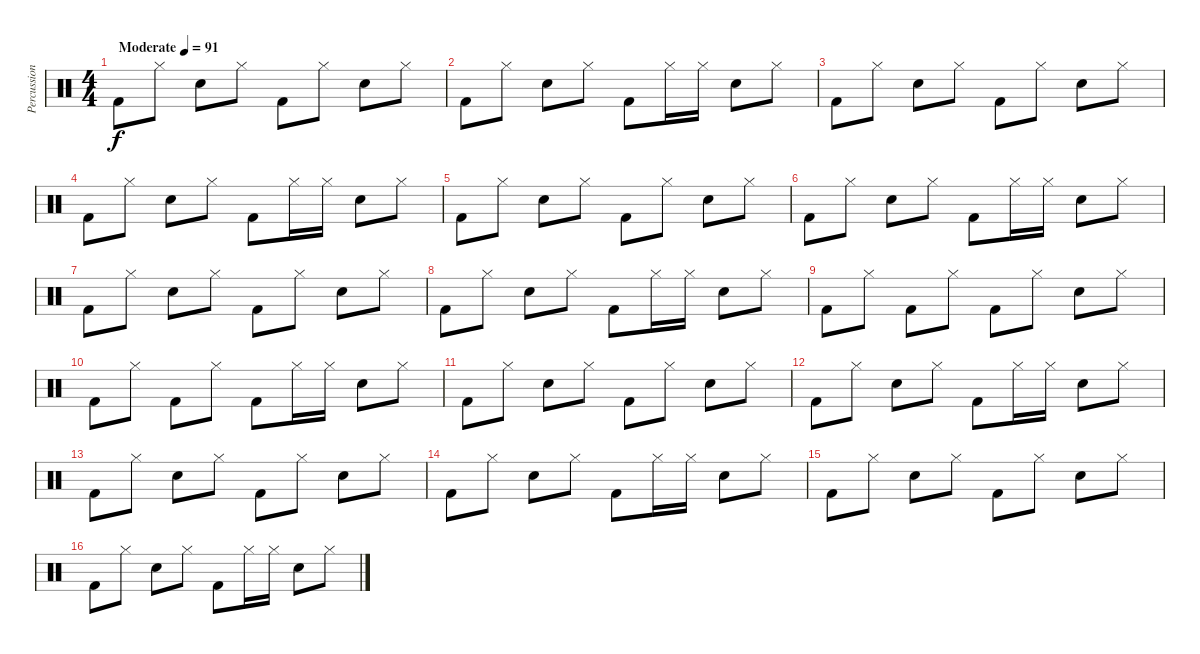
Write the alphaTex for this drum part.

\track ("Percussion" "Percussion") {instrument percussion}
\staff {score}
\articulation defaults
\ts (4 4)
\tempo (91 "Moderate")
\clef neutral
\ks c "Kick (hit) 2".8{dy f} "Hi-Hat (closed)".8 "Electric Snare (hit)".8 "Hi-Hat (closed)".8 "Kick (hit) 2".8 "Hi-Hat (closed)".8 "Electric Snare (hit)".8 "Hi-Hat (closed)".8
|
"Kick (hit) 2".8 "Hi-Hat (closed)".8 "Electric Snare (hit)".8 "Hi-Hat (closed)".8 "Kick (hit) 2".8 "Hi-Hat (closed)".16 "Hi-Hat (closed)".16 "Electric Snare (hit)".8 "Hi-Hat (closed)".8 |
"Kick (hit) 2".8 "Hi-Hat (closed)".8 "Electric Snare (hit)".8 "Hi-Hat (closed)".8 "Kick (hit) 2".8 "Hi-Hat (closed)".8 "Electric Snare (hit)".8 "Hi-Hat (closed)".8 |
"Kick (hit) 2".8 "Hi-Hat (closed)".8 "Electric Snare (hit)".8 "Hi-Hat (closed)".8 "Kick (hit) 2".8 "Hi-Hat (closed)".16 "Hi-Hat (closed)".16 "Electric Snare (hit)".8 "Hi-Hat (closed)".8 |
"Kick (hit) 2".8 "Hi-Hat (closed)".8 "Electric Snare (hit)".8 "Hi-Hat (closed)".8 "Kick (hit) 2".8 "Hi-Hat (closed)".8 "Electric Snare (hit)".8 "Hi-Hat (closed)".8 |
"Kick (hit) 2".8 "Hi-Hat (closed)".8 "Electric Snare (hit)".8 "Hi-Hat (closed)".8 "Kick (hit) 2".8 "Hi-Hat (closed)".16 "Hi-Hat (closed)".16 "Electric Snare (hit)".8 "Hi-Hat (closed)".8 |
"Kick (hit) 2".8 "Hi-Hat (closed)".8 "Electric Snare (hit)".8 "Hi-Hat (closed)".8 "Kick (hit) 2".8 "Hi-Hat (closed)".8 "Electric Snare (hit)".8 "Hi-Hat (closed)".8 |
"Kick (hit) 2".8 "Hi-Hat (closed)".8 "Electric Snare (hit)".8 "Hi-Hat (closed)".8 "Kick (hit) 2".8 "Hi-Hat (closed)".16 "Hi-Hat (closed)".16 "Electric Snare (hit)".8 "Hi-Hat (closed)".8 |
"Kick (hit) 2".8 "Hi-Hat (closed)".8 "Kick (hit) 2".8 "Hi-Hat (closed)".8 "Kick (hit) 2".8 "Hi-Hat (closed)".8 "Electric Snare (hit)".8 "Hi-Hat (closed)".8 |
"Kick (hit) 2".8 "Hi-Hat (closed)".8 "Kick (hit) 2".8 "Hi-Hat (closed)".8 "Kick (hit) 2".8 "Hi-Hat (closed)".16 "Hi-Hat (closed)".16 "Electric Snare (hit)".8 "Hi-Hat (closed)".8 |
"Kick (hit) 2".8 "Hi-Hat (closed)".8 "Electric Snare (hit)".8 "Hi-Hat (closed)".8 "Kick (hit) 2".8 "Hi-Hat (closed)".8 "Electric Snare (hit)".8 "Hi-Hat (closed)".8 |
"Kick (hit) 2".8 "Hi-Hat (closed)".8 "Electric Snare (hit)".8 "Hi-Hat (closed)".8 "Kick (hit) 2".8 "Hi-Hat (closed)".16 "Hi-Hat (closed)".16 "Electric Snare (hit)".8 "Hi-Hat (closed)".8 |
"Kick (hit) 2".8 "Hi-Hat (closed)".8 "Electric Snare (hit)".8 "Hi-Hat (closed)".8 "Kick (hit) 2".8 "Hi-Hat (closed)".8 "Electric Snare (hit)".8 "Hi-Hat (closed)".8 |
"Kick (hit) 2".8 "Hi-Hat (closed)".8 "Electric Snare (hit)".8 "Hi-Hat (closed)".8 "Kick (hit) 2".8 "Hi-Hat (closed)".16 "Hi-Hat (closed)".16 "Electric Snare (hit)".8 "Hi-Hat (closed)".8 |
"Kick (hit) 2".8 "Hi-Hat (closed)".8 "Electric Snare (hit)".8 "Hi-Hat (closed)".8 "Kick (hit) 2".8 "Hi-Hat (closed)".8 "Electric Snare (hit)".8 "Hi-Hat (closed)".8 |
"Kick (hit) 2".8 "Hi-Hat (closed)".8 "Electric Snare (hit)".8 "Hi-Hat (closed)".8 "Kick (hit) 2".8 "Hi-Hat (closed)".16 "Hi-Hat (closed)".16 "Electric Snare (hit)".8 "Hi-Hat (closed)".8
